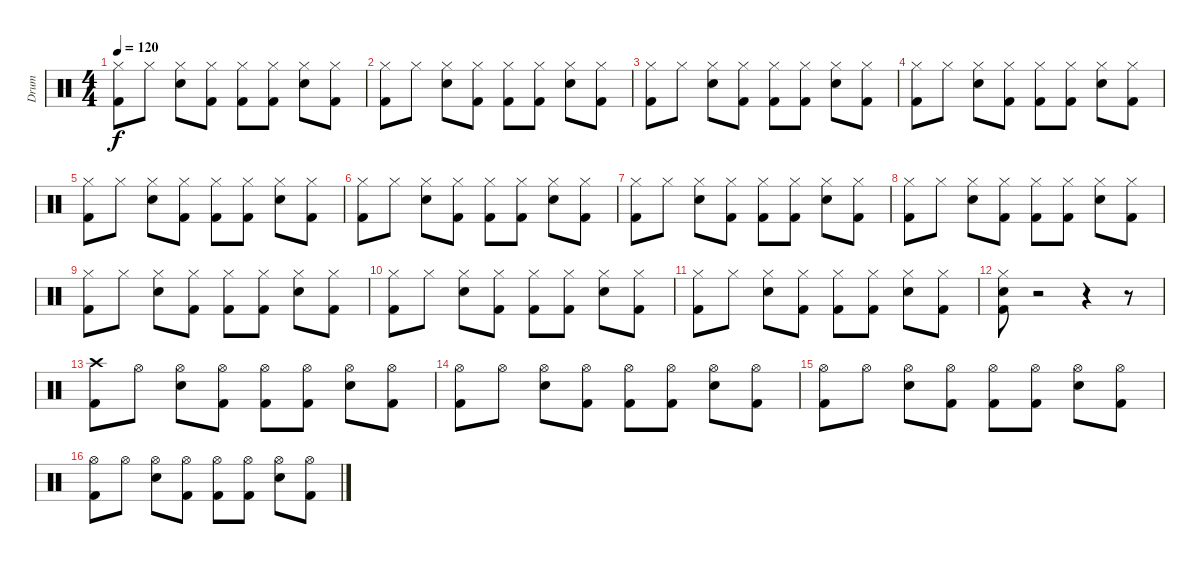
\track ("Drum" "Drum") {instrument percussion}
\staff {score}
\articulation defaults
\ts (4 4)
\tempo 120
\clef neutral
\ks c
("Hi-Hat (closed)" "Kick (hit) 2").8{dy f} "Hi-Hat (closed)".8 ("Hi-Hat (closed)" "Snare (hit) 2").8 ("Hi-Hat (closed)" "Kick (hit) 2").8 ("Hi-Hat (closed)" "Kick (hit) 2").8 ("Hi-Hat (closed)" "Kick (hit) 2").8 ("Hi-Hat (closed)" "Snare (hit) 2").8 ("Hi-Hat (closed)" "Kick (hit) 2").8 |
("Hi-Hat (closed)" "Kick (hit) 2").8 "Hi-Hat (closed)".8 ("Hi-Hat (closed)" "Snare (hit) 2").8 ("Hi-Hat (closed)" "Kick (hit) 2").8 ("Hi-Hat (closed)" "Kick (hit) 2").8 ("Hi-Hat (closed)" "Kick (hit) 2").8 ("Hi-Hat (closed)" "Snare (hit) 2").8 ("Hi-Hat (closed)" "Kick (hit) 2").8 |
("Hi-Hat (closed)" "Kick (hit) 2").8 "Hi-Hat (closed)".8 ("Hi-Hat (closed)" "Snare (hit) 2").8 ("Hi-Hat (closed)" "Kick (hit) 2").8 ("Hi-Hat (closed)" "Kick (hit) 2").8 ("Hi-Hat (closed)" "Kick (hit) 2").8 ("Hi-Hat (closed)" "Snare (hit) 2").8 ("Hi-Hat (closed)" "Kick (hit) 2").8 |
("Hi-Hat (closed)" "Kick (hit) 2").8 "Hi-Hat (closed)".8 ("Hi-Hat (closed)" "Snare (hit) 2").8 ("Hi-Hat (closed)" "Kick (hit) 2").8 ("Hi-Hat (closed)" "Kick (hit) 2").8 ("Hi-Hat (closed)" "Kick (hit) 2").8 ("Hi-Hat (closed)" "Snare (hit) 2").8 ("Hi-Hat (closed)" "Kick (hit) 2").8 |
("Hi-Hat (closed)" "Kick (hit) 2").8 "Hi-Hat (closed)".8 ("Hi-Hat (closed)" "Snare (hit) 2").8 ("Hi-Hat (closed)" "Kick (hit) 2").8 ("Hi-Hat (closed)" "Kick (hit) 2").8 ("Hi-Hat (closed)" "Kick (hit) 2").8 ("Hi-Hat (closed)" "Snare (hit) 2").8 ("Hi-Hat (closed)" "Kick (hit) 2").8 |
("Hi-Hat (closed)" "Kick (hit) 2").8 "Hi-Hat (closed)".8 ("Hi-Hat (closed)" "Snare (hit) 2").8 ("Hi-Hat (closed)" "Kick (hit) 2").8 ("Hi-Hat (closed)" "Kick (hit) 2").8 ("Hi-Hat (closed)" "Kick (hit) 2").8 ("Hi-Hat (closed)" "Snare (hit) 2").8 ("Hi-Hat (closed)" "Kick (hit) 2").8 |
("Hi-Hat (closed)" "Kick (hit) 2").8 "Hi-Hat (closed)".8 ("Hi-Hat (closed)" "Snare (hit) 2").8 ("Hi-Hat (closed)" "Kick (hit) 2").8 ("Hi-Hat (closed)" "Kick (hit) 2").8 ("Hi-Hat (closed)" "Kick (hit) 2").8 ("Hi-Hat (closed)" "Snare (hit) 2").8 ("Hi-Hat (closed)" "Kick (hit) 2").8 |
("Hi-Hat (closed)" "Kick (hit) 2").8 "Hi-Hat (closed)".8 ("Hi-Hat (closed)" "Snare (hit) 2").8 ("Hi-Hat (closed)" "Kick (hit) 2").8 ("Hi-Hat (closed)" "Kick (hit) 2").8 ("Hi-Hat (closed)" "Kick (hit) 2").8 ("Hi-Hat (closed)" "Snare (hit) 2").8 ("Hi-Hat (closed)" "Kick (hit) 2").8 |
("Hi-Hat (closed)" "Kick (hit) 2").8 "Hi-Hat (closed)".8 ("Hi-Hat (closed)" "Snare (hit) 2").8 ("Hi-Hat (closed)" "Kick (hit) 2").8 ("Hi-Hat (closed)" "Kick (hit) 2").8 ("Hi-Hat (closed)" "Kick (hit) 2").8 ("Hi-Hat (closed)" "Snare (hit) 2").8 ("Hi-Hat (closed)" "Kick (hit) 2").8 |
("Hi-Hat (closed)" "Kick (hit) 2").8 "Hi-Hat (closed)".8 ("Hi-Hat (closed)" "Snare (hit) 2").8 ("Hi-Hat (closed)" "Kick (hit) 2").8 ("Hi-Hat (closed)" "Kick (hit) 2").8 ("Hi-Hat (closed)" "Kick (hit) 2").8 ("Hi-Hat (closed)" "Snare (hit) 2").8 ("Hi-Hat (closed)" "Kick (hit) 2").8 |
("Hi-Hat (closed)" "Kick (hit) 2").8 "Hi-Hat (closed)".8 ("Hi-Hat (closed)" "Snare (hit) 2").8 ("Hi-Hat (closed)" "Kick (hit) 2").8 ("Hi-Hat (closed)" "Kick (hit) 2").8 ("Hi-Hat (closed)" "Kick (hit) 2").8 ("Hi-Hat (closed)" "Snare (hit) 2").8 ("Hi-Hat (closed)" "Kick (hit) 2").8 |
("Hi-Hat (closed)" "Snare (hit) 2" "Kick (hit) 2").8 r.2 r.4 r.8 |
("Crash high (hit)" "Kick (hit) 2").8 "Hi-Hat (open)".8 ("Hi-Hat (open)" "Snare (hit) 2").8 ("Hi-Hat (open)" "Kick (hit) 2").8 ("Hi-Hat (open)" "Kick (hit) 2").8 ("Hi-Hat (open)" "Kick (hit) 2").8 ("Hi-Hat (open)" "Snare (hit) 2").8 ("Hi-Hat (open)" "Kick (hit) 2").8 |
("Hi-Hat (open)" "Kick (hit) 2").8 "Hi-Hat (open)".8 ("Hi-Hat (open)" "Snare (hit) 2").8 ("Hi-Hat (open)" "Kick (hit) 2").8 ("Hi-Hat (open)" "Kick (hit) 2").8 ("Hi-Hat (open)" "Kick (hit) 2").8 ("Hi-Hat (open)" "Snare (hit) 2").8 ("Hi-Hat (open)" "Kick (hit) 2").8 |
("Hi-Hat (open)" "Kick (hit) 2").8 "Hi-Hat (open)".8 ("Hi-Hat (open)" "Snare (hit) 2").8 ("Hi-Hat (open)" "Kick (hit) 2").8 ("Hi-Hat (open)" "Kick (hit) 2").8 ("Hi-Hat (open)" "Kick (hit) 2").8 ("Hi-Hat (open)" "Snare (hit) 2").8 ("Hi-Hat (open)" "Kick (hit) 2").8 |
("Hi-Hat (open)" "Kick (hit) 2").8 "Hi-Hat (open)".8 ("Hi-Hat (open)" "Snare (hit) 2").8 ("Hi-Hat (open)" "Kick (hit) 2").8 ("Hi-Hat (open)" "Kick (hit) 2").8 ("Hi-Hat (open)" "Kick (hit) 2").8 ("Hi-Hat (open)" "Snare (hit) 2").8 ("Hi-Hat (open)" "Kick (hit) 2").8
